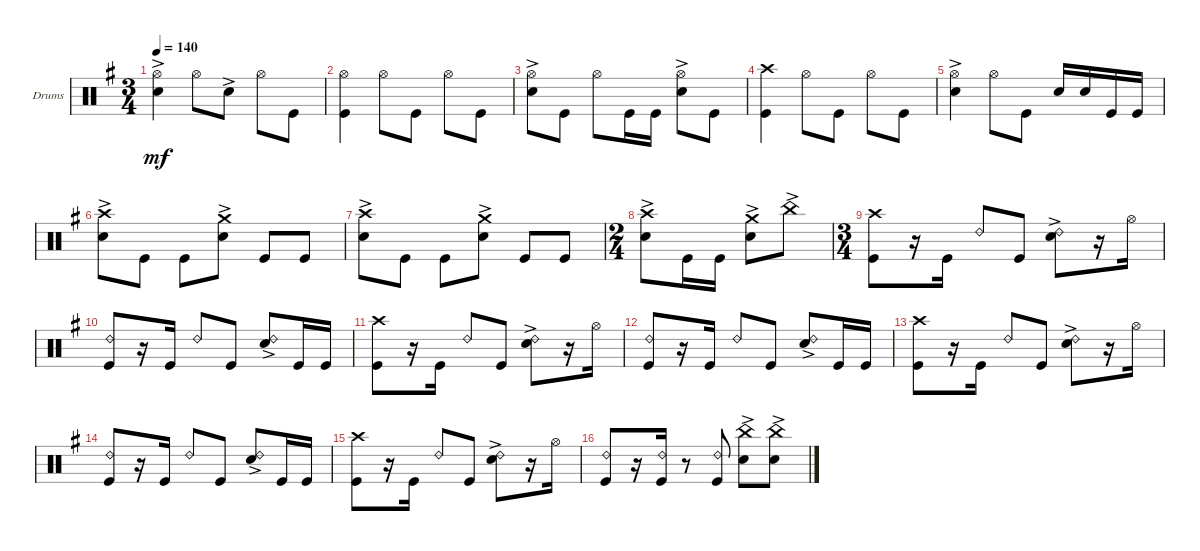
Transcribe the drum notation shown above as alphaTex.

\bracketExtendMode groupsimilarinstruments
\firstSystemTrackNameOrientation horizontal
\otherSystemsTrackNameOrientation horizontal
\track ("Drumkit" "Drums") {instrument percussion}
\staff {score}
\articulation defaults
\ts (3 4)
\tempo 140
\clef neutral
\ks eminor
("Snare (hit) 2"{ac} "Hi-Hat (open)").4{dy mf} "Hi-Hat (open)".8 "Snare (hit) 2"{ac}.8 "Hi-Hat (open)".8 "Kick (hit)".8 |
("Kick (hit)" "Hi-Hat (open)").4 "Hi-Hat (open)".8 "Kick (hit)".8 "Hi-Hat (open)".8 "Kick (hit)".8 |
("Snare (hit) 2"{ac} "Hi-Hat (open)").8 "Kick (hit)".8 "Hi-Hat (open)".8 "Kick (hit)".16 "Kick (hit)".16 ("Hi-Hat (open)" "Snare (hit) 2"{ac}).8 "Kick (hit)".8 |
("Kick (hit)" "Crash high (hit)").4 "Hi-Hat (open)".8 "Kick (hit)".8 "Hi-Hat (open)".8 "Kick (hit)".8 |
("Snare (hit) 2"{ac} "Hi-Hat (open)").4 "Hi-Hat (open)".8 "Kick (hit)".8 "Snare (hit) 2".16 "Snare (hit) 2".16 "Kick (hit)".16 "Kick (hit)".16 |
("Snare (hit) 2"{ac} "Crash high (hit)").8 "Kick (hit)".8 "Kick (hit)".8 ("Snare (hit) 2"{ac} "Crash medium (hit)").8 "Kick (hit)".8 "Kick (hit)".8 |
("Snare (hit) 2"{ac} "Crash high (hit)").8 "Kick (hit)".8 "Kick (hit)".8 ("Snare (hit) 2"{ac} "Crash medium (hit)").8 "Kick (hit)".8 "Kick (hit)".8 |
\ts (2 4)
("Snare (hit) 2"{ac} "Crash high (hit)").8 "Kick (hit)".16 "Kick (hit)".16 ("Snare (hit) 2"{ac} "Crash medium (hit)").8 "China (hit)"{ac}.8 |
\ts (3 4)
("Kick (hit)" "Crash high (hit)").8 r.16 "Kick (hit)".16 "Ride (bell) 2".8 "Kick (hit)".8 ("Snare (hit) 2"{ac} "Ride (bell) 2").8 r.16 "Hi-Hat (open)".16 |
("Kick (hit)" "Ride (bell) 2").8 r.16 "Kick (hit)".16 "Ride (bell) 2".8 "Kick (hit)".8 ("Snare (hit) 2"{ac} "Ride (bell) 2").8 "Kick (hit)".16 "Kick (hit)".16 |
("Kick (hit)" "Crash high (hit)").8 r.16 "Kick (hit)".16 "Ride (bell) 2".8 "Kick (hit)".8 ("Snare (hit) 2"{ac} "Ride (bell) 2").8 r.16 "Hi-Hat (open)".16 |
("Kick (hit)" "Ride (bell) 2").8 r.16 "Kick (hit)".16 "Ride (bell) 2".8 "Kick (hit)".8 ("Snare (hit) 2"{ac} "Ride (bell) 2").8 "Kick (hit)".16 "Kick (hit)".16 |
("Kick (hit)" "Crash high (hit)").8 r.16 "Kick (hit)".16 "Ride (bell) 2".8 "Kick (hit)".8 ("Snare (hit) 2"{ac} "Ride (bell) 2").8 r.16 "Hi-Hat (open)".16 |
("Kick (hit)" "Ride (bell) 2").8 r.16 "Kick (hit)".16 "Ride (bell) 2".8 "Kick (hit)".8 ("Snare (hit) 2"{ac} "Ride (bell) 2").8 "Kick (hit)".16 "Kick (hit)".16 |
("Kick (hit)" "Crash high (hit)").8 r.16 "Kick (hit)".16 "Ride (bell) 2".8 "Kick (hit)".8 ("Snare (hit) 2"{ac} "Ride (bell) 2").8 r.16 "Hi-Hat (open)".16 |
("Kick (hit)" "Ride (bell) 2").8 r.16 ("Kick (hit)" "Ride (bell) 2").16 r.8 ("Kick (hit)" "Ride (bell) 2").8 ("Snare (hit) 2"{ac} "China (hit)").8 ("Snare (hit) 2"{ac} "China (hit)").8
